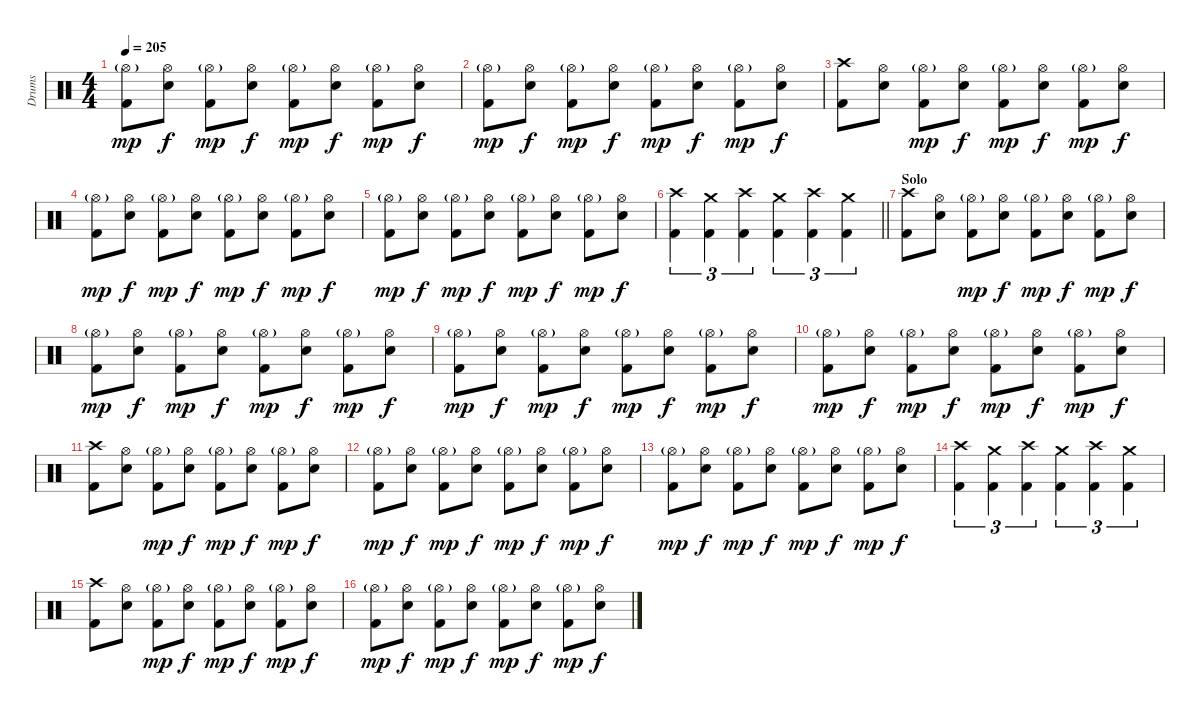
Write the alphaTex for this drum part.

\track ("Drums" "Drums") {instrument percussion}
\staff {score}
\articulation defaults
\ts (4 4)
\tempo 205
\clef neutral
\ks c
("Hi-Hat (open)"{g} "Kick (hit) 2").8{dy mp} ("Hi-Hat (open)" "Electric Snare (hit)").8{dy f} ("Hi-Hat (open)"{g} "Kick (hit) 2").8{dy mp} ("Hi-Hat (open)" "Electric Snare (hit)").8{dy f} ("Hi-Hat (open)"{g} "Kick (hit) 2").8{dy mp} ("Hi-Hat (open)" "Electric Snare (hit)").8{dy f} ("Hi-Hat (open)"{g} "Kick (hit) 2").8{dy mp} ("Hi-Hat (open)" "Electric Snare (hit)").8{dy f} |
("Hi-Hat (open)"{g} "Kick (hit) 2").8{dy mp} ("Hi-Hat (open)" "Electric Snare (hit)").8{dy f} ("Hi-Hat (open)"{g} "Kick (hit) 2").8{dy mp} ("Hi-Hat (open)" "Electric Snare (hit)").8{dy f} ("Hi-Hat (open)"{g} "Kick (hit) 2").8{dy mp} ("Hi-Hat (open)" "Electric Snare (hit)").8{dy f} ("Hi-Hat (open)"{g} "Kick (hit) 2").8{dy mp} ("Hi-Hat (open)" "Electric Snare (hit)").8{dy f} |
("Crash high (hit)" "Kick (hit) 2").8 ("Hi-Hat (open)" "Electric Snare (hit)").8 ("Hi-Hat (open)"{g} "Kick (hit) 2").8{dy mp} ("Hi-Hat (open)" "Electric Snare (hit)").8{dy f} ("Hi-Hat (open)"{g} "Kick (hit) 2").8{dy mp} ("Hi-Hat (open)" "Electric Snare (hit)").8{dy f} ("Hi-Hat (open)"{g} "Kick (hit) 2").8{dy mp} ("Hi-Hat (open)" "Electric Snare (hit)").8{dy f} |
("Hi-Hat (open)"{g} "Kick (hit) 2").8{dy mp} ("Hi-Hat (open)" "Electric Snare (hit)").8{dy f} ("Hi-Hat (open)"{g} "Kick (hit) 2").8{dy mp} ("Hi-Hat (open)" "Electric Snare (hit)").8{dy f} ("Hi-Hat (open)"{g} "Kick (hit) 2").8{dy mp} ("Hi-Hat (open)" "Electric Snare (hit)").8{dy f} ("Hi-Hat (open)"{g} "Kick (hit) 2").8{dy mp} ("Hi-Hat (open)" "Electric Snare (hit)").8{dy f} |
("Hi-Hat (open)"{g} "Kick (hit) 2").8{dy mp} ("Hi-Hat (open)" "Electric Snare (hit)").8{dy f} ("Hi-Hat (open)"{g} "Kick (hit) 2").8{dy mp} ("Hi-Hat (open)" "Electric Snare (hit)").8{dy f} ("Hi-Hat (open)"{g} "Kick (hit) 2").8{dy mp} ("Hi-Hat (open)" "Electric Snare (hit)").8{dy f} ("Hi-Hat (open)"{g} "Kick (hit) 2").8{dy mp} ("Hi-Hat (open)" "Electric Snare (hit)").8{dy f} |
\barLineRight lightlight
("Crash high (hit)" "Kick (hit) 2").4{tu (3 2)} ("Crash medium (hit)" "Kick (hit) 2").4{tu (3 2)} ("Crash high (hit)" "Kick (hit) 2").4{tu (3 2)} ("Crash medium (hit)" "Kick (hit) 2").4{tu (3 2)} ("Crash high (hit)" "Kick (hit) 2").4{tu (3 2)} ("Crash medium (hit)" "Kick (hit) 2").4{tu (3 2)} |
\section ("" "Solo")
("Crash high (hit)" "Kick (hit) 2").8 ("Hi-Hat (open)" "Electric Snare (hit)").8 ("Hi-Hat (open)"{g} "Kick (hit) 2").8{dy mp} ("Hi-Hat (open)" "Electric Snare (hit)").8{dy f} ("Hi-Hat (open)"{g} "Kick (hit) 2").8{dy mp} ("Hi-Hat (open)" "Electric Snare (hit)").8{dy f} ("Hi-Hat (open)"{g} "Kick (hit) 2").8{dy mp} ("Hi-Hat (open)" "Electric Snare (hit)").8{dy f} |
("Hi-Hat (open)"{g} "Kick (hit) 2").8{dy mp} ("Hi-Hat (open)" "Electric Snare (hit)").8{dy f} ("Hi-Hat (open)"{g} "Kick (hit) 2").8{dy mp} ("Hi-Hat (open)" "Electric Snare (hit)").8{dy f} ("Hi-Hat (open)"{g} "Kick (hit) 2").8{dy mp} ("Hi-Hat (open)" "Electric Snare (hit)").8{dy f} ("Hi-Hat (open)"{g} "Kick (hit) 2").8{dy mp} ("Hi-Hat (open)" "Electric Snare (hit)").8{dy f} |
("Hi-Hat (open)"{g} "Kick (hit) 2").8{dy mp} ("Hi-Hat (open)" "Electric Snare (hit)").8{dy f} ("Hi-Hat (open)"{g} "Kick (hit) 2").8{dy mp} ("Hi-Hat (open)" "Electric Snare (hit)").8{dy f} ("Hi-Hat (open)"{g} "Kick (hit) 2").8{dy mp} ("Hi-Hat (open)" "Electric Snare (hit)").8{dy f} ("Hi-Hat (open)"{g} "Kick (hit) 2").8{dy mp} ("Hi-Hat (open)" "Electric Snare (hit)").8{dy f} |
("Hi-Hat (open)"{g} "Kick (hit) 2").8{dy mp} ("Hi-Hat (open)" "Electric Snare (hit)").8{dy f} ("Hi-Hat (open)"{g} "Kick (hit) 2").8{dy mp} ("Hi-Hat (open)" "Electric Snare (hit)").8{dy f} ("Hi-Hat (open)"{g} "Kick (hit) 2").8{dy mp} ("Hi-Hat (open)" "Electric Snare (hit)").8{dy f} ("Hi-Hat (open)"{g} "Kick (hit) 2").8{dy mp} ("Hi-Hat (open)" "Electric Snare (hit)").8{dy f} |
("Crash high (hit)" "Kick (hit) 2").8 ("Hi-Hat (open)" "Electric Snare (hit)").8 ("Hi-Hat (open)"{g} "Kick (hit) 2").8{dy mp} ("Hi-Hat (open)" "Electric Snare (hit)").8{dy f} ("Hi-Hat (open)"{g} "Kick (hit) 2").8{dy mp} ("Hi-Hat (open)" "Electric Snare (hit)").8{dy f} ("Hi-Hat (open)"{g} "Kick (hit) 2").8{dy mp} ("Hi-Hat (open)" "Electric Snare (hit)").8{dy f} |
("Hi-Hat (open)"{g} "Kick (hit) 2").8{dy mp} ("Hi-Hat (open)" "Electric Snare (hit)").8{dy f} ("Hi-Hat (open)"{g} "Kick (hit) 2").8{dy mp} ("Hi-Hat (open)" "Electric Snare (hit)").8{dy f} ("Hi-Hat (open)"{g} "Kick (hit) 2").8{dy mp} ("Hi-Hat (open)" "Electric Snare (hit)").8{dy f} ("Hi-Hat (open)"{g} "Kick (hit) 2").8{dy mp} ("Hi-Hat (open)" "Electric Snare (hit)").8{dy f} |
("Hi-Hat (open)"{g} "Kick (hit) 2").8{dy mp} ("Hi-Hat (open)" "Electric Snare (hit)").8{dy f} ("Hi-Hat (open)"{g} "Kick (hit) 2").8{dy mp} ("Hi-Hat (open)" "Electric Snare (hit)").8{dy f} ("Hi-Hat (open)"{g} "Kick (hit) 2").8{dy mp} ("Hi-Hat (open)" "Electric Snare (hit)").8{dy f} ("Hi-Hat (open)"{g} "Kick (hit) 2").8{dy mp} ("Hi-Hat (open)" "Electric Snare (hit)").8{dy f} |
("Crash high (hit)" "Kick (hit) 2").4{tu (3 2)} ("Crash medium (hit)" "Kick (hit) 2").4{tu (3 2)} ("Crash high (hit)" "Kick (hit) 2").4{tu (3 2)} ("Crash medium (hit)" "Kick (hit) 2").4{tu (3 2)} ("Crash high (hit)" "Kick (hit) 2").4{tu (3 2)} ("Crash medium (hit)" "Kick (hit) 2").4{tu (3 2)} |
("Crash high (hit)" "Kick (hit) 2").8 ("Hi-Hat (open)" "Electric Snare (hit)").8 ("Hi-Hat (open)"{g} "Kick (hit) 2").8{dy mp} ("Hi-Hat (open)" "Electric Snare (hit)").8{dy f} ("Hi-Hat (open)"{g} "Kick (hit) 2").8{dy mp} ("Hi-Hat (open)" "Electric Snare (hit)").8{dy f} ("Hi-Hat (open)"{g} "Kick (hit) 2").8{dy mp} ("Hi-Hat (open)" "Electric Snare (hit)").8{dy f} |
("Hi-Hat (open)"{g} "Kick (hit) 2").8{dy mp} ("Hi-Hat (open)" "Electric Snare (hit)").8{dy f} ("Hi-Hat (open)"{g} "Kick (hit) 2").8{dy mp} ("Hi-Hat (open)" "Electric Snare (hit)").8{dy f} ("Hi-Hat (open)"{g} "Kick (hit) 2").8{dy mp} ("Hi-Hat (open)" "Electric Snare (hit)").8{dy f} ("Hi-Hat (open)"{g} "Kick (hit) 2").8{dy mp} ("Hi-Hat (open)" "Electric Snare (hit)").8{dy f}
